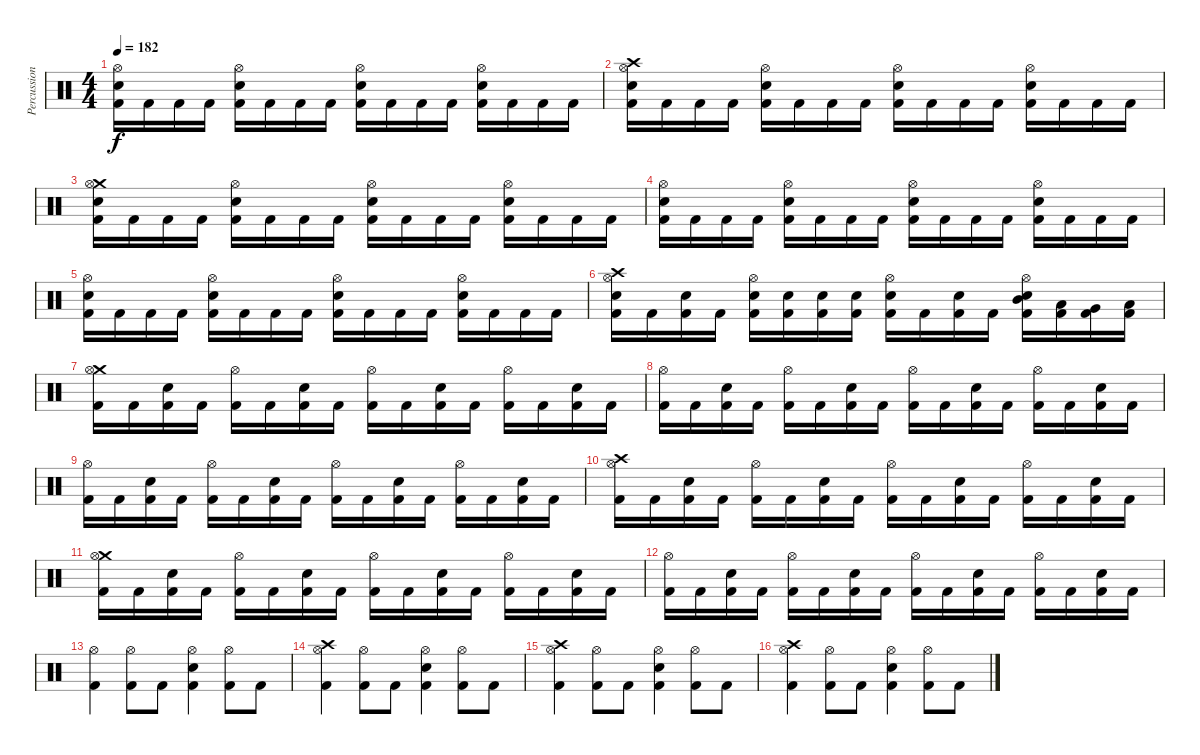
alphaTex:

\track ("Percussion" "Percussion") {instrument percussion}
\staff {score}
\articulation defaults
\ts (4 4)
\tempo 182
\clef neutral
\ks c
("Hi-Hat (open)" "Electric Snare (hit)" "Kick (hit) 2").16{dy f} "Kick (hit) 2".16 "Kick (hit) 2".16 "Kick (hit) 2".16 ("Hi-Hat (open)" "Electric Snare (hit)" "Kick (hit) 2").16 "Kick (hit) 2".16 "Kick (hit) 2".16 "Kick (hit) 2".16 ("Hi-Hat (open)" "Electric Snare (hit)" "Kick (hit) 2").16 "Kick (hit) 2".16 "Kick (hit) 2".16 "Kick (hit) 2".16 ("Hi-Hat (open)" "Electric Snare (hit)" "Kick (hit) 2").16 "Kick (hit) 2".16 "Kick (hit) 2".16 "Kick (hit) 2".16 |
("Crash high (hit)" "Hi-Hat (open)" "Electric Snare (hit)" "Kick (hit) 2").16 "Kick (hit) 2".16 "Kick (hit) 2".16 "Kick (hit) 2".16 ("Hi-Hat (open)" "Electric Snare (hit)" "Kick (hit) 2").16 "Kick (hit) 2".16 "Kick (hit) 2".16 "Kick (hit) 2".16 ("Hi-Hat (open)" "Electric Snare (hit)" "Kick (hit) 2").16 "Kick (hit) 2".16 "Kick (hit) 2".16 "Kick (hit) 2".16 ("Hi-Hat (open)" "Electric Snare (hit)" "Kick (hit) 2").16 "Kick (hit) 2".16 "Kick (hit) 2".16 "Kick (hit) 2".16 |
("Crash medium (hit)" "Hi-Hat (open)" "Electric Snare (hit)" "Kick (hit) 2").16 "Kick (hit) 2".16 "Kick (hit) 2".16 "Kick (hit) 2".16 ("Hi-Hat (open)" "Electric Snare (hit)" "Kick (hit) 2").16 "Kick (hit) 2".16 "Kick (hit) 2".16 "Kick (hit) 2".16 ("Hi-Hat (open)" "Electric Snare (hit)" "Kick (hit) 2").16 "Kick (hit) 2".16 "Kick (hit) 2".16 "Kick (hit) 2".16 ("Hi-Hat (open)" "Electric Snare (hit)" "Kick (hit) 2").16 "Kick (hit) 2".16 "Kick (hit) 2".16 "Kick (hit) 2".16 |
("Hi-Hat (open)" "Electric Snare (hit)" "Kick (hit) 2").16 "Kick (hit) 2".16 "Kick (hit) 2".16 "Kick (hit) 2".16 ("Hi-Hat (open)" "Electric Snare (hit)" "Kick (hit) 2").16 "Kick (hit) 2".16 "Kick (hit) 2".16 "Kick (hit) 2".16 ("Hi-Hat (open)" "Electric Snare (hit)" "Kick (hit) 2").16 "Kick (hit) 2".16 "Kick (hit) 2".16 "Kick (hit) 2".16 ("Hi-Hat (open)" "Electric Snare (hit)" "Kick (hit) 2").16 "Kick (hit) 2".16 "Kick (hit) 2".16 "Kick (hit) 2".16 |
("Hi-Hat (open)" "Electric Snare (hit)" "Kick (hit) 2").16 "Kick (hit) 2".16 "Kick (hit) 2".16 "Kick (hit) 2".16 ("Hi-Hat (open)" "Electric Snare (hit)" "Kick (hit) 2").16 "Kick (hit) 2".16 "Kick (hit) 2".16 "Kick (hit) 2".16 ("Hi-Hat (open)" "Electric Snare (hit)" "Kick (hit) 2").16 "Kick (hit) 2".16 "Kick (hit) 2".16 "Kick (hit) 2".16 ("Hi-Hat (open)" "Electric Snare (hit)" "Kick (hit) 2").16 "Kick (hit) 2".16 "Kick (hit) 2".16 "Kick (hit) 2".16 |
("Crash high (hit)" "Hi-Hat (open)" "Electric Snare (hit)" "Kick (hit) 2").16 "Kick (hit) 2".16 ("Electric Snare (hit)" "Kick (hit) 2").16 "Kick (hit) 2".16 ("Hi-Hat (open)" "Electric Snare (hit)" "Kick (hit) 2").16 ("Electric Snare (hit)" "Kick (hit) 2").16 ("Electric Snare (hit)" "Kick (hit) 2").16 ("Electric Snare (hit)" "Kick (hit) 2").16 ("Hi-Hat (open)" "Electric Snare (hit)" "Kick (hit) 2").16 "Kick (hit) 2".16 ("Electric Snare (hit)" "Kick (hit) 2").16 "Kick (hit) 2".16 ("Mid Tom (hit)" "Hi-Hat (open)" "Electric Snare (hit)" "Kick (hit) 2").16 ("Low Tom (hit)" "Kick (hit) 2").16 ("Very Low Tom (hit)" "Kick (hit) 2").16 ("Low Floor Tom (hit)" "Kick (hit) 2").16 |
("Crash medium (hit)" "Hi-Hat (open)" "Kick (hit) 2").16 "Kick (hit) 2".16 ("Electric Snare (hit)" "Kick (hit) 2").16 "Kick (hit) 2".16 ("Hi-Hat (open)" "Kick (hit) 2").16 "Kick (hit) 2".16 ("Electric Snare (hit)" "Kick (hit) 2").16 "Kick (hit) 2".16 ("Hi-Hat (open)" "Kick (hit) 2").16 "Kick (hit) 2".16 ("Electric Snare (hit)" "Kick (hit) 2").16 "Kick (hit) 2".16 ("Hi-Hat (open)" "Kick (hit) 2").16 "Kick (hit) 2".16 ("Electric Snare (hit)" "Kick (hit) 2").16 "Kick (hit) 2".16 |
("Hi-Hat (open)" "Kick (hit) 2").16 "Kick (hit) 2".16 ("Electric Snare (hit)" "Kick (hit) 2").16 "Kick (hit) 2".16 ("Hi-Hat (open)" "Kick (hit) 2").16 "Kick (hit) 2".16 ("Electric Snare (hit)" "Kick (hit) 2").16 "Kick (hit) 2".16 ("Hi-Hat (open)" "Kick (hit) 2").16 "Kick (hit) 2".16 ("Electric Snare (hit)" "Kick (hit) 2").16 "Kick (hit) 2".16 ("Hi-Hat (open)" "Kick (hit) 2").16 "Kick (hit) 2".16 ("Electric Snare (hit)" "Kick (hit) 2").16 "Kick (hit) 2".16 |
("Hi-Hat (open)" "Kick (hit) 2").16 "Kick (hit) 2".16 ("Electric Snare (hit)" "Kick (hit) 2").16 "Kick (hit) 2".16 ("Hi-Hat (open)" "Kick (hit) 2").16 "Kick (hit) 2".16 ("Electric Snare (hit)" "Kick (hit) 2").16 "Kick (hit) 2".16 ("Hi-Hat (open)" "Kick (hit) 2").16 "Kick (hit) 2".16 ("Electric Snare (hit)" "Kick (hit) 2").16 "Kick (hit) 2".16 ("Hi-Hat (open)" "Kick (hit) 2").16 "Kick (hit) 2".16 ("Electric Snare (hit)" "Kick (hit) 2").16 "Kick (hit) 2".16 |
("Crash high (hit)" "Hi-Hat (open)" "Kick (hit) 2").16 "Kick (hit) 2".16 ("Electric Snare (hit)" "Kick (hit) 2").16 "Kick (hit) 2".16 ("Hi-Hat (open)" "Kick (hit) 2").16 "Kick (hit) 2".16 ("Electric Snare (hit)" "Kick (hit) 2").16 "Kick (hit) 2".16 ("Hi-Hat (open)" "Kick (hit) 2").16 "Kick (hit) 2".16 ("Electric Snare (hit)" "Kick (hit) 2").16 "Kick (hit) 2".16 ("Hi-Hat (open)" "Kick (hit) 2").16 "Kick (hit) 2".16 ("Electric Snare (hit)" "Kick (hit) 2").16 "Kick (hit) 2".16 |
("Crash medium (hit)" "Hi-Hat (open)" "Kick (hit) 2").16 "Kick (hit) 2".16 ("Electric Snare (hit)" "Kick (hit) 2").16 "Kick (hit) 2".16 ("Hi-Hat (open)" "Kick (hit) 2").16 "Kick (hit) 2".16 ("Electric Snare (hit)" "Kick (hit) 2").16 "Kick (hit) 2".16 ("Hi-Hat (open)" "Kick (hit) 2").16 "Kick (hit) 2".16 ("Electric Snare (hit)" "Kick (hit) 2").16 "Kick (hit) 2".16 ("Hi-Hat (open)" "Kick (hit) 2").16 "Kick (hit) 2".16 ("Electric Snare (hit)" "Kick (hit) 2").16 "Kick (hit) 2".16 |
("Hi-Hat (open)" "Kick (hit) 2").16 "Kick (hit) 2".16 ("Electric Snare (hit)" "Kick (hit) 2").16 "Kick (hit) 2".16 ("Hi-Hat (open)" "Kick (hit) 2").16 "Kick (hit) 2".16 ("Electric Snare (hit)" "Kick (hit) 2").16 "Kick (hit) 2".16 ("Hi-Hat (open)" "Kick (hit) 2").16 "Kick (hit) 2".16 ("Electric Snare (hit)" "Kick (hit) 2").16 "Kick (hit) 2".16 ("Hi-Hat (open)" "Kick (hit) 2").16 "Kick (hit) 2".16 ("Electric Snare (hit)" "Kick (hit) 2").16 "Kick (hit) 2".16 |
("Hi-Hat (open)" "Kick (hit) 2").4 ("Hi-Hat (open)" "Kick (hit) 2").8 "Kick (hit) 2".8 ("Hi-Hat (open)" "Electric Snare (hit)" "Kick (hit) 2").4 ("Hi-Hat (open)" "Kick (hit) 2").8 "Kick (hit) 2".8 |
("Crash high (hit)" "Hi-Hat (open)" "Kick (hit) 2").4 ("Hi-Hat (open)" "Kick (hit) 2").8 "Kick (hit) 2".8 ("Hi-Hat (open)" "Electric Snare (hit)" "Kick (hit) 2").4 ("Hi-Hat (open)" "Kick (hit) 2").8 "Kick (hit) 2".8 |
("Crash high (hit)" "Hi-Hat (open)" "Kick (hit) 2").4 ("Hi-Hat (open)" "Kick (hit) 2").8 "Kick (hit) 2".8 ("Hi-Hat (open)" "Electric Snare (hit)" "Kick (hit) 2").4 ("Hi-Hat (open)" "Kick (hit) 2").8 "Kick (hit) 2".8 |
("Crash high (hit)" "Hi-Hat (open)" "Kick (hit) 2").4 ("Hi-Hat (open)" "Kick (hit) 2").8 "Kick (hit) 2".8 ("Hi-Hat (open)" "Electric Snare (hit)" "Kick (hit) 2").4 ("Hi-Hat (open)" "Kick (hit) 2").8 "Kick (hit) 2".8
